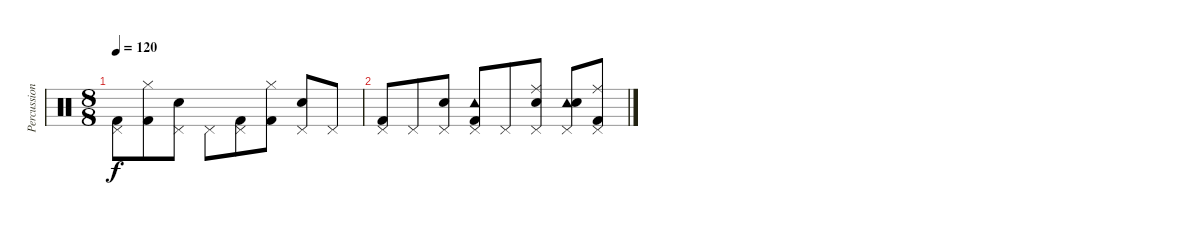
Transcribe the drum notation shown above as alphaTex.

\track ("Percussions" "Percussion") {instrument percussion}
\staff {score}
\articulation defaults
\ts (8 8)
\tempo 120
\clef neutral
\ks c
("Pedal Hi-Hat (hit)" "Kick (hit) 2").8{dy f} ("Hi-Hat (closed)" "Kick (hit) 2").8 ("Pedal Hi-Hat (hit)" "Electric Snare (hit)").8 "Pedal Hi-Hat (hit)".8 ("Pedal Hi-Hat (hit)" "Kick (hit) 2").8 ("Hi-Hat (closed)" "Kick (hit) 2").8 ("Pedal Hi-Hat (hit)" "Electric Snare (hit)").8 "Pedal Hi-Hat (hit)".8 |
("Pedal Hi-Hat (hit)" "Kick (hit) 2").8 "Pedal Hi-Hat (hit)".8 ("Pedal Hi-Hat (hit)" "Electric Snare (hit)").8 ("Tambourine (hit)" "Pedal Hi-Hat (hit)" "Kick (hit) 2").8 "Pedal Hi-Hat (hit)".8 ("Ride (middle)" "Pedal Hi-Hat (hit)" "Electric Snare (hit)").8 ("Tambourine (hit)" "Pedal Hi-Hat (hit)" "Electric Snare (hit)").8 ("Ride (middle)" "Pedal Hi-Hat (hit)" "Kick (hit) 2").8
